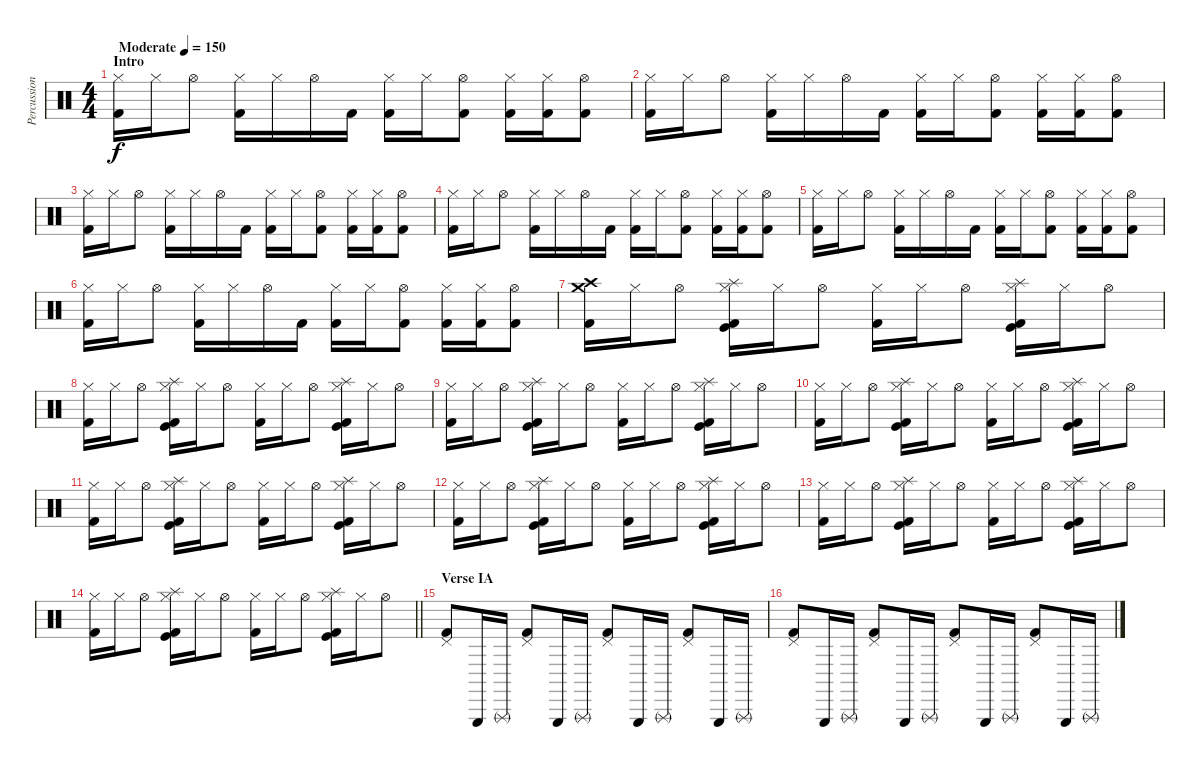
\track ("Percussion" "Percussion") {instrument percussion}
\staff {score}
\articulation defaults
\ts (4 4)
\section ("" "Intro")
\tempo (150 "Moderate")
\clef neutral
\ks c
("Hi-Hat (closed)" "Kick (hit) 2").16{dy f} "Hi-Hat (closed)".16 "Hi-Hat (open)".8 ("Hi-Hat (closed)" "Kick (hit) 2").16 "Hi-Hat (closed)".16 "Hi-Hat (open)".16 "Kick (hit) 2".16 ("Hi-Hat (closed)" "Kick (hit) 2").16 "Hi-Hat (closed)".16 ("Hi-Hat (open)" "Kick (hit) 2").8 ("Hi-Hat (closed)" "Kick (hit) 2").16 ("Hi-Hat (closed)" "Kick (hit) 2").16 ("Hi-Hat (open)" "Kick (hit) 2").8 |
("Hi-Hat (closed)" "Kick (hit) 2").16 "Hi-Hat (closed)".16 "Hi-Hat (open)".8 ("Hi-Hat (closed)" "Kick (hit) 2").16 "Hi-Hat (closed)".16 "Hi-Hat (open)".16 "Kick (hit) 2".16 ("Hi-Hat (closed)" "Kick (hit) 2").16 "Hi-Hat (closed)".16 ("Hi-Hat (open)" "Kick (hit) 2").8 ("Hi-Hat (closed)" "Kick (hit) 2").16 ("Hi-Hat (closed)" "Kick (hit) 2").16 ("Hi-Hat (open)" "Kick (hit) 2").8 |
("Hi-Hat (closed)" "Kick (hit) 2").16 "Hi-Hat (closed)".16 "Hi-Hat (open)".8 ("Hi-Hat (closed)" "Kick (hit) 2").16 "Hi-Hat (closed)".16 "Hi-Hat (open)".16 "Kick (hit) 2".16 ("Hi-Hat (closed)" "Kick (hit) 2").16 "Hi-Hat (closed)".16 ("Hi-Hat (open)" "Kick (hit) 2").8 ("Hi-Hat (closed)" "Kick (hit) 2").16 ("Hi-Hat (closed)" "Kick (hit) 2").16 ("Hi-Hat (open)" "Kick (hit) 2").8 |
("Hi-Hat (closed)" "Kick (hit) 2").16 "Hi-Hat (closed)".16 "Hi-Hat (open)".8 ("Hi-Hat (closed)" "Kick (hit) 2").16 "Hi-Hat (closed)".16 "Hi-Hat (open)".16 "Kick (hit) 2".16 ("Hi-Hat (closed)" "Kick (hit) 2").16 "Hi-Hat (closed)".16 ("Hi-Hat (open)" "Kick (hit) 2").8 ("Hi-Hat (closed)" "Kick (hit) 2").16 ("Hi-Hat (closed)" "Kick (hit) 2").16 ("Hi-Hat (open)" "Kick (hit) 2").8 |
("Hi-Hat (closed)" "Kick (hit) 2").16 "Hi-Hat (closed)".16 "Hi-Hat (open)".8 ("Hi-Hat (closed)" "Kick (hit) 2").16 "Hi-Hat (closed)".16 "Hi-Hat (open)".16 "Kick (hit) 2".16 ("Hi-Hat (closed)" "Kick (hit) 2").16 "Hi-Hat (closed)".16 ("Hi-Hat (open)" "Kick (hit) 2").8 ("Hi-Hat (closed)" "Kick (hit) 2").16 ("Hi-Hat (closed)" "Kick (hit) 2").16 ("Hi-Hat (open)" "Kick (hit) 2").8 |
("Hi-Hat (closed)" "Kick (hit) 2").16 "Hi-Hat (closed)".16 "Hi-Hat (open)".8 ("Hi-Hat (closed)" "Kick (hit) 2").16 "Hi-Hat (closed)".16 "Hi-Hat (open)".16 "Kick (hit) 2".16 ("Hi-Hat (closed)" "Kick (hit) 2").16 "Hi-Hat (closed)".16 ("Hi-Hat (open)" "Kick (hit) 2").8 ("Hi-Hat (closed)" "Kick (hit) 2").16 ("Hi-Hat (closed)" "Kick (hit) 2").16 ("Hi-Hat (open)" "Kick (hit) 2").8 |
("Crash high (hit)" "Crash medium (hit)" "Kick (hit) 2").16 "Hi-Hat (closed)".16 "Hi-Hat (open)".8 ("Hi-Hat (closed)" "Splash (hit)" "Kick (hit)" "Kick (hit) 2").16 "Hi-Hat (closed)".16 "Hi-Hat (open)".8 ("Hi-Hat (closed)" "Kick (hit) 2").16 "Hi-Hat (closed)".16 "Hi-Hat (open)".8 ("Hi-Hat (closed)" "Splash (hit)" "Kick (hit)" "Kick (hit) 2").16 "Hi-Hat (closed)".16 "Hi-Hat (open)".8 |
("Hi-Hat (closed)" "Kick (hit) 2").16 "Hi-Hat (closed)".16 "Hi-Hat (open)".8 ("Hi-Hat (closed)" "Splash (hit)" "Kick (hit)" "Kick (hit) 2").16 "Hi-Hat (closed)".16 "Hi-Hat (open)".8 ("Hi-Hat (closed)" "Kick (hit) 2").16 "Hi-Hat (closed)".16 "Hi-Hat (open)".8 ("Hi-Hat (closed)" "Splash (hit)" "Kick (hit)" "Kick (hit) 2").16 "Hi-Hat (closed)".16 "Hi-Hat (open)".8 |
("Hi-Hat (closed)" "Kick (hit) 2").16 "Hi-Hat (closed)".16 "Hi-Hat (open)".8 ("Hi-Hat (closed)" "Splash (hit)" "Kick (hit)" "Kick (hit) 2").16 "Hi-Hat (closed)".16 "Hi-Hat (open)".8 ("Hi-Hat (closed)" "Kick (hit) 2").16 "Hi-Hat (closed)".16 "Hi-Hat (open)".8 ("Hi-Hat (closed)" "Splash (hit)" "Kick (hit)" "Kick (hit) 2").16 "Hi-Hat (closed)".16 "Hi-Hat (open)".8 |
("Hi-Hat (closed)" "Kick (hit) 2").16 "Hi-Hat (closed)".16 "Hi-Hat (open)".8 ("Hi-Hat (closed)" "Splash (hit)" "Kick (hit)" "Kick (hit) 2").16 "Hi-Hat (closed)".16 "Hi-Hat (open)".8 ("Hi-Hat (closed)" "Kick (hit) 2").16 "Hi-Hat (closed)".16 "Hi-Hat (open)".8 ("Hi-Hat (closed)" "Splash (hit)" "Kick (hit)" "Kick (hit) 2").16 "Hi-Hat (closed)".16 "Hi-Hat (open)".8 |
("Hi-Hat (closed)" "Kick (hit) 2").16 "Hi-Hat (closed)".16 "Hi-Hat (open)".8 ("Hi-Hat (closed)" "Splash (hit)" "Kick (hit)" "Kick (hit) 2").16 "Hi-Hat (closed)".16 "Hi-Hat (open)".8 ("Hi-Hat (closed)" "Kick (hit) 2").16 "Hi-Hat (closed)".16 "Hi-Hat (open)".8 ("Hi-Hat (closed)" "Splash (hit)" "Kick (hit)" "Kick (hit) 2").16 "Hi-Hat (closed)".16 "Hi-Hat (open)".8 |
("Hi-Hat (closed)" "Kick (hit) 2").16 "Hi-Hat (closed)".16 "Hi-Hat (open)".8 ("Hi-Hat (closed)" "Splash (hit)" "Kick (hit)" "Kick (hit) 2").16 "Hi-Hat (closed)".16 "Hi-Hat (open)".8 ("Hi-Hat (closed)" "Kick (hit) 2").16 "Hi-Hat (closed)".16 "Hi-Hat (open)".8 ("Hi-Hat (closed)" "Splash (hit)" "Kick (hit)" "Kick (hit) 2").16 "Hi-Hat (closed)".16 "Hi-Hat (open)".8 |
("Hi-Hat (closed)" "Kick (hit) 2").16 "Hi-Hat (closed)".16 "Hi-Hat (open)".8 ("Hi-Hat (closed)" "Splash (hit)" "Kick (hit)" "Kick (hit) 2").16 "Hi-Hat (closed)".16 "Hi-Hat (open)".8 ("Hi-Hat (closed)" "Kick (hit) 2").16 "Hi-Hat (closed)".16 "Hi-Hat (open)".8 ("Hi-Hat (closed)" "Splash (hit)" "Kick (hit)" "Kick (hit) 2").16 "Hi-Hat (closed)".16 "Hi-Hat (open)".8 |
\barLineRight lightlight
("Hi-Hat (closed)" "Kick (hit) 2").16 "Hi-Hat (closed)".16 "Hi-Hat (open)".8 ("Hi-Hat (closed)" "Splash (hit)" "Kick (hit)" "Kick (hit) 2").16 "Hi-Hat (closed)".16 "Hi-Hat (open)".8 ("Hi-Hat (closed)" "Kick (hit) 2").16 "Hi-Hat (closed)".16 "Hi-Hat (open)".8 ("Hi-Hat (closed)" "Splash (hit)" "Kick (hit)" "Kick (hit) 2").16 "Hi-Hat (closed)".16 "Hi-Hat (open)".8 |
\section ("" "Verse IA")
("Pedal Hi-Hat (hit)" "Kick (hit) 2").8 "Triangle (hit)".16 "Triangle (rnute)".16 ("Pedal Hi-Hat (hit)" "Kick (hit) 2").8 "Triangle (hit)".16 "Triangle (rnute)".16 ("Pedal Hi-Hat (hit)" "Kick (hit) 2").8 "Triangle (hit)".16 "Triangle (rnute)".16 ("Pedal Hi-Hat (hit)" "Kick (hit) 2").8 "Triangle (hit)".16 "Triangle (rnute)".16 |
("Pedal Hi-Hat (hit)" "Kick (hit) 2").8 "Triangle (hit)".16 "Triangle (rnute)".16 ("Pedal Hi-Hat (hit)" "Kick (hit) 2").8 "Triangle (hit)".16 "Triangle (rnute)".16 ("Pedal Hi-Hat (hit)" "Kick (hit) 2").8 "Triangle (hit)".16 "Triangle (rnute)".16 ("Pedal Hi-Hat (hit)" "Kick (hit) 2").8 "Triangle (hit)".16 "Triangle (rnute)".16
